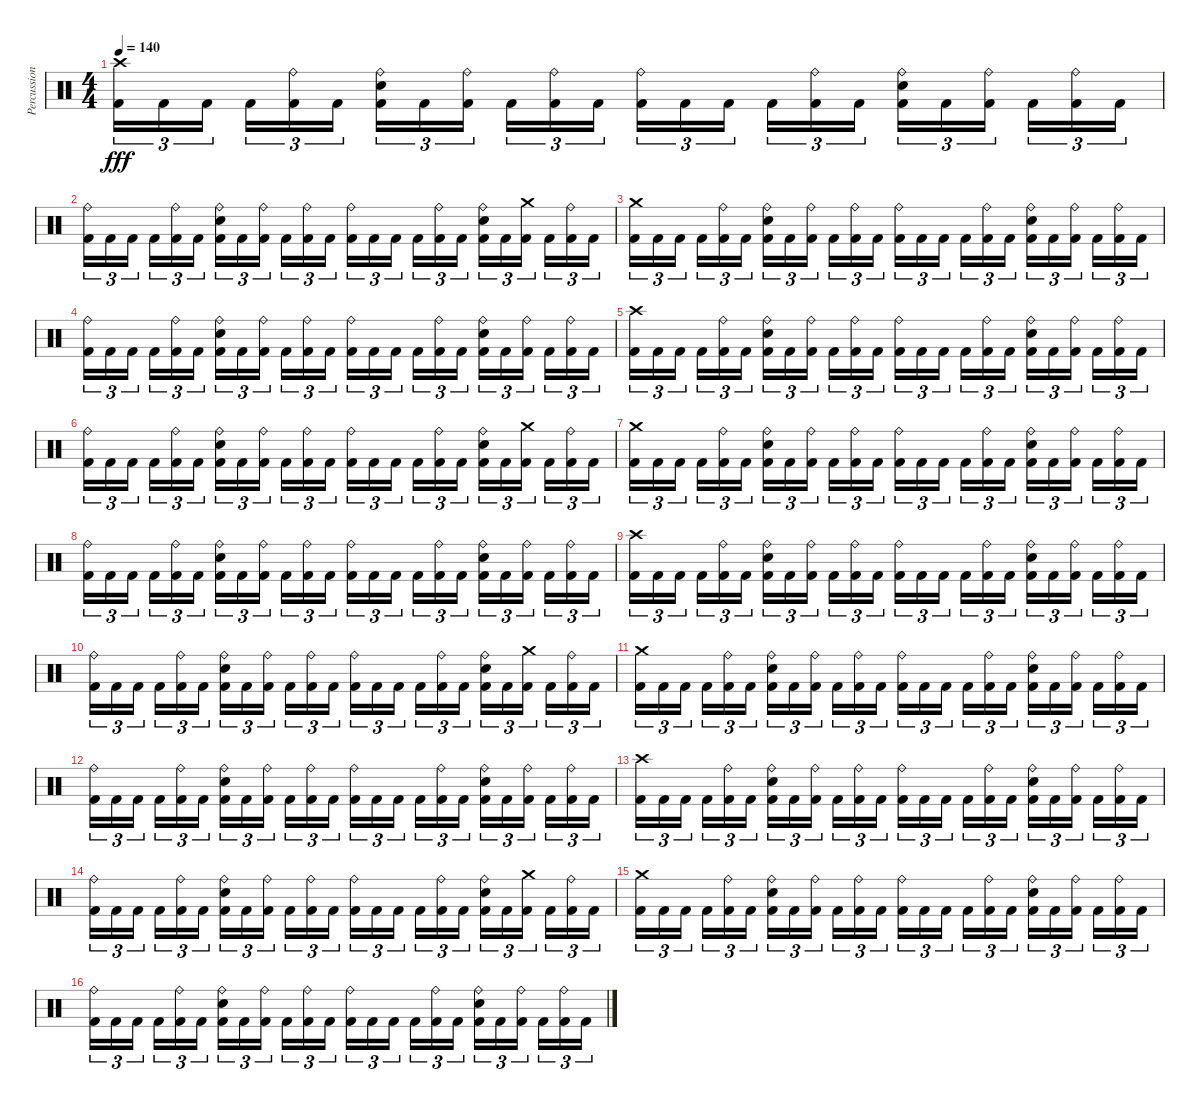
\track ("Percussions" "Percussion") {instrument percussion}
\staff {score}
\articulation defaults
\ts (4 4)
\tempo 140
\clef neutral
\ks c
("Crash high (hit)" "Kick (hit) 2").16{tu (3 2) dy fff} "Kick (hit) 2".16{tu (3 2)} "Kick (hit) 2".16{tu (3 2) beam splitsecondary} "Kick (hit) 2".16{tu (3 2)} ("Ride (bell)" "Kick (hit) 2").16{tu (3 2)} "Kick (hit) 2".16{tu (3 2)} ("Ride (bell)" "Snare (hit) 2" "Kick (hit) 2").16{tu (3 2)} "Kick (hit) 2".16{tu (3 2)} ("Ride (bell)" "Kick (hit) 2").16{tu (3 2) beam splitsecondary} "Kick (hit) 2".16{tu (3 2)} ("Ride (bell)" "Kick (hit) 2").16{tu (3 2)} "Kick (hit) 2".16{tu (3 2)} ("Ride (bell)" "Kick (hit) 2").16{tu (3 2)} "Kick (hit) 2".16{tu (3 2)} "Kick (hit) 2".16{tu (3 2) beam splitsecondary} "Kick (hit) 2".16{tu (3 2)} ("Ride (bell)" "Kick (hit) 2").16{tu (3 2)} "Kick (hit) 2".16{tu (3 2)} ("Ride (bell)" "Snare (hit) 2" "Kick (hit) 2").16{tu (3 2)} "Kick (hit) 2".16{tu (3 2)} ("Ride (bell)" "Kick (hit) 2").16{tu (3 2) beam splitsecondary} "Kick (hit) 2".16{tu (3 2)} ("Ride (bell)" "Kick (hit) 2").16{tu (3 2)} "Kick (hit) 2".16{tu (3 2)} |
("Ride (bell)" "Kick (hit) 2").16{tu (3 2)} "Kick (hit) 2".16{tu (3 2)} "Kick (hit) 2".16{tu (3 2) beam splitsecondary} "Kick (hit) 2".16{tu (3 2)} ("Ride (bell)" "Kick (hit) 2").16{tu (3 2)} "Kick (hit) 2".16{tu (3 2)} ("Ride (bell)" "Snare (hit) 2" "Kick (hit) 2").16{tu (3 2)} "Kick (hit) 2".16{tu (3 2)} ("Ride (bell)" "Kick (hit) 2").16{tu (3 2) beam splitsecondary} "Kick (hit) 2".16{tu (3 2)} ("Ride (bell)" "Kick (hit) 2").16{tu (3 2)} "Kick (hit) 2".16{tu (3 2)} ("Ride (bell)" "Kick (hit) 2").16{tu (3 2)} "Kick (hit) 2".16{tu (3 2)} "Kick (hit) 2".16{tu (3 2) beam splitsecondary} "Kick (hit) 2".16{tu (3 2)} ("Ride (bell)" "Kick (hit) 2").16{tu (3 2)} "Kick (hit) 2".16{tu (3 2)} ("Ride (bell)" "Snare (hit) 2" "Kick (hit) 2").16{tu (3 2)} "Kick (hit) 2".16{tu (3 2)} ("Crash medium (hit)" "Kick (hit) 2").16{tu (3 2) beam splitsecondary} "Kick (hit) 2".16{tu (3 2)} ("Ride (bell)" "Kick (hit) 2").16{tu (3 2)} "Kick (hit) 2".16{tu (3 2)} |
("Crash medium (hit)" "Kick (hit) 2").16{tu (3 2)} "Kick (hit) 2".16{tu (3 2)} "Kick (hit) 2".16{tu (3 2) beam splitsecondary} "Kick (hit) 2".16{tu (3 2)} ("Ride (bell)" "Kick (hit) 2").16{tu (3 2)} "Kick (hit) 2".16{tu (3 2)} ("Ride (bell)" "Snare (hit) 2" "Kick (hit) 2").16{tu (3 2)} "Kick (hit) 2".16{tu (3 2)} ("Ride (bell)" "Kick (hit) 2").16{tu (3 2) beam splitsecondary} "Kick (hit) 2".16{tu (3 2)} ("Ride (bell)" "Kick (hit) 2").16{tu (3 2)} "Kick (hit) 2".16{tu (3 2)} ("Ride (bell)" "Kick (hit) 2").16{tu (3 2)} "Kick (hit) 2".16{tu (3 2)} "Kick (hit) 2".16{tu (3 2) beam splitsecondary} "Kick (hit) 2".16{tu (3 2)} ("Ride (bell)" "Kick (hit) 2").16{tu (3 2)} "Kick (hit) 2".16{tu (3 2)} ("Ride (bell)" "Snare (hit) 2" "Kick (hit) 2").16{tu (3 2)} "Kick (hit) 2".16{tu (3 2)} ("Ride (bell)" "Kick (hit) 2").16{tu (3 2) beam splitsecondary} "Kick (hit) 2".16{tu (3 2)} ("Ride (bell)" "Kick (hit) 2").16{tu (3 2)} "Kick (hit) 2".16{tu (3 2)} |
("Ride (bell)" "Kick (hit) 2").16{tu (3 2)} "Kick (hit) 2".16{tu (3 2)} "Kick (hit) 2".16{tu (3 2) beam splitsecondary} "Kick (hit) 2".16{tu (3 2)} ("Ride (bell)" "Kick (hit) 2").16{tu (3 2)} "Kick (hit) 2".16{tu (3 2)} ("Ride (bell)" "Snare (hit) 2" "Kick (hit) 2").16{tu (3 2)} "Kick (hit) 2".16{tu (3 2)} ("Ride (bell)" "Kick (hit) 2").16{tu (3 2) beam splitsecondary} "Kick (hit) 2".16{tu (3 2)} ("Ride (bell)" "Kick (hit) 2").16{tu (3 2)} "Kick (hit) 2".16{tu (3 2)} ("Ride (bell)" "Kick (hit) 2").16{tu (3 2)} "Kick (hit) 2".16{tu (3 2)} "Kick (hit) 2".16{tu (3 2) beam splitsecondary} "Kick (hit) 2".16{tu (3 2)} ("Ride (bell)" "Kick (hit) 2").16{tu (3 2)} "Kick (hit) 2".16{tu (3 2)} ("Ride (bell)" "Snare (hit) 2" "Kick (hit) 2").16{tu (3 2)} "Kick (hit) 2".16{tu (3 2)} ("Ride (bell)" "Kick (hit) 2").16{tu (3 2) beam splitsecondary} "Kick (hit) 2".16{tu (3 2)} ("Ride (bell)" "Kick (hit) 2").16{tu (3 2)} "Kick (hit) 2".16{tu (3 2)} |
("Crash high (hit)" "Kick (hit) 2").16{tu (3 2)} "Kick (hit) 2".16{tu (3 2)} "Kick (hit) 2".16{tu (3 2) beam splitsecondary} "Kick (hit) 2".16{tu (3 2)} ("Ride (bell)" "Kick (hit) 2").16{tu (3 2)} "Kick (hit) 2".16{tu (3 2)} ("Ride (bell)" "Snare (hit) 2" "Kick (hit) 2").16{tu (3 2)} "Kick (hit) 2".16{tu (3 2)} ("Ride (bell)" "Kick (hit) 2").16{tu (3 2) beam splitsecondary} "Kick (hit) 2".16{tu (3 2)} ("Ride (bell)" "Kick (hit) 2").16{tu (3 2)} "Kick (hit) 2".16{tu (3 2)} ("Ride (bell)" "Kick (hit) 2").16{tu (3 2)} "Kick (hit) 2".16{tu (3 2)} "Kick (hit) 2".16{tu (3 2) beam splitsecondary} "Kick (hit) 2".16{tu (3 2)} ("Ride (bell)" "Kick (hit) 2").16{tu (3 2)} "Kick (hit) 2".16{tu (3 2)} ("Ride (bell)" "Snare (hit) 2" "Kick (hit) 2").16{tu (3 2)} "Kick (hit) 2".16{tu (3 2)} ("Ride (bell)" "Kick (hit) 2").16{tu (3 2) beam splitsecondary} "Kick (hit) 2".16{tu (3 2)} ("Ride (bell)" "Kick (hit) 2").16{tu (3 2)} "Kick (hit) 2".16{tu (3 2)} |
("Ride (bell)" "Kick (hit) 2").16{tu (3 2)} "Kick (hit) 2".16{tu (3 2)} "Kick (hit) 2".16{tu (3 2) beam splitsecondary} "Kick (hit) 2".16{tu (3 2)} ("Ride (bell)" "Kick (hit) 2").16{tu (3 2)} "Kick (hit) 2".16{tu (3 2)} ("Ride (bell)" "Snare (hit) 2" "Kick (hit) 2").16{tu (3 2)} "Kick (hit) 2".16{tu (3 2)} ("Ride (bell)" "Kick (hit) 2").16{tu (3 2) beam splitsecondary} "Kick (hit) 2".16{tu (3 2)} ("Ride (bell)" "Kick (hit) 2").16{tu (3 2)} "Kick (hit) 2".16{tu (3 2)} ("Ride (bell)" "Kick (hit) 2").16{tu (3 2)} "Kick (hit) 2".16{tu (3 2)} "Kick (hit) 2".16{tu (3 2) beam splitsecondary} "Kick (hit) 2".16{tu (3 2)} ("Ride (bell)" "Kick (hit) 2").16{tu (3 2)} "Kick (hit) 2".16{tu (3 2)} ("Ride (bell)" "Snare (hit) 2" "Kick (hit) 2").16{tu (3 2)} "Kick (hit) 2".16{tu (3 2)} ("Crash medium (hit)" "Kick (hit) 2").16{tu (3 2) beam splitsecondary} "Kick (hit) 2".16{tu (3 2)} ("Ride (bell)" "Kick (hit) 2").16{tu (3 2)} "Kick (hit) 2".16{tu (3 2)} |
("Crash medium (hit)" "Kick (hit) 2").16{tu (3 2)} "Kick (hit) 2".16{tu (3 2)} "Kick (hit) 2".16{tu (3 2) beam splitsecondary} "Kick (hit) 2".16{tu (3 2)} ("Ride (bell)" "Kick (hit) 2").16{tu (3 2)} "Kick (hit) 2".16{tu (3 2)} ("Ride (bell)" "Snare (hit) 2" "Kick (hit) 2").16{tu (3 2)} "Kick (hit) 2".16{tu (3 2)} ("Ride (bell)" "Kick (hit) 2").16{tu (3 2) beam splitsecondary} "Kick (hit) 2".16{tu (3 2)} ("Ride (bell)" "Kick (hit) 2").16{tu (3 2)} "Kick (hit) 2".16{tu (3 2)} ("Ride (bell)" "Kick (hit) 2").16{tu (3 2)} "Kick (hit) 2".16{tu (3 2)} "Kick (hit) 2".16{tu (3 2) beam splitsecondary} "Kick (hit) 2".16{tu (3 2)} ("Ride (bell)" "Kick (hit) 2").16{tu (3 2)} "Kick (hit) 2".16{tu (3 2)} ("Ride (bell)" "Snare (hit) 2" "Kick (hit) 2").16{tu (3 2)} "Kick (hit) 2".16{tu (3 2)} ("Ride (bell)" "Kick (hit) 2").16{tu (3 2) beam splitsecondary} "Kick (hit) 2".16{tu (3 2)} ("Ride (bell)" "Kick (hit) 2").16{tu (3 2)} "Kick (hit) 2".16{tu (3 2)} |
("Ride (bell)" "Kick (hit) 2").16{tu (3 2)} "Kick (hit) 2".16{tu (3 2)} "Kick (hit) 2".16{tu (3 2) beam splitsecondary} "Kick (hit) 2".16{tu (3 2)} ("Ride (bell)" "Kick (hit) 2").16{tu (3 2)} "Kick (hit) 2".16{tu (3 2)} ("Ride (bell)" "Snare (hit) 2" "Kick (hit) 2").16{tu (3 2)} "Kick (hit) 2".16{tu (3 2)} ("Ride (bell)" "Kick (hit) 2").16{tu (3 2) beam splitsecondary} "Kick (hit) 2".16{tu (3 2)} ("Ride (bell)" "Kick (hit) 2").16{tu (3 2)} "Kick (hit) 2".16{tu (3 2)} ("Ride (bell)" "Kick (hit) 2").16{tu (3 2)} "Kick (hit) 2".16{tu (3 2)} "Kick (hit) 2".16{tu (3 2) beam splitsecondary} "Kick (hit) 2".16{tu (3 2)} ("Ride (bell)" "Kick (hit) 2").16{tu (3 2)} "Kick (hit) 2".16{tu (3 2)} ("Ride (bell)" "Snare (hit) 2" "Kick (hit) 2").16{tu (3 2)} "Kick (hit) 2".16{tu (3 2)} ("Ride (bell)" "Kick (hit) 2").16{tu (3 2) beam splitsecondary} "Kick (hit) 2".16{tu (3 2)} ("Ride (bell)" "Kick (hit) 2").16{tu (3 2)} "Kick (hit) 2".16{tu (3 2)} |
("Crash high (hit)" "Kick (hit) 2").16{tu (3 2)} "Kick (hit) 2".16{tu (3 2)} "Kick (hit) 2".16{tu (3 2) beam splitsecondary} "Kick (hit) 2".16{tu (3 2)} ("Ride (bell)" "Kick (hit) 2").16{tu (3 2)} "Kick (hit) 2".16{tu (3 2)} ("Ride (bell)" "Snare (hit) 2" "Kick (hit) 2").16{tu (3 2)} "Kick (hit) 2".16{tu (3 2)} ("Ride (bell)" "Kick (hit) 2").16{tu (3 2) beam splitsecondary} "Kick (hit) 2".16{tu (3 2)} ("Ride (bell)" "Kick (hit) 2").16{tu (3 2)} "Kick (hit) 2".16{tu (3 2)} ("Ride (bell)" "Kick (hit) 2").16{tu (3 2)} "Kick (hit) 2".16{tu (3 2)} "Kick (hit) 2".16{tu (3 2) beam splitsecondary} "Kick (hit) 2".16{tu (3 2)} ("Ride (bell)" "Kick (hit) 2").16{tu (3 2)} "Kick (hit) 2".16{tu (3 2)} ("Ride (bell)" "Snare (hit) 2" "Kick (hit) 2").16{tu (3 2)} "Kick (hit) 2".16{tu (3 2)} ("Ride (bell)" "Kick (hit) 2").16{tu (3 2) beam splitsecondary} "Kick (hit) 2".16{tu (3 2)} ("Ride (bell)" "Kick (hit) 2").16{tu (3 2)} "Kick (hit) 2".16{tu (3 2)} |
("Ride (bell)" "Kick (hit) 2").16{tu (3 2)} "Kick (hit) 2".16{tu (3 2)} "Kick (hit) 2".16{tu (3 2) beam splitsecondary} "Kick (hit) 2".16{tu (3 2)} ("Ride (bell)" "Kick (hit) 2").16{tu (3 2)} "Kick (hit) 2".16{tu (3 2)} ("Ride (bell)" "Snare (hit) 2" "Kick (hit) 2").16{tu (3 2)} "Kick (hit) 2".16{tu (3 2)} ("Ride (bell)" "Kick (hit) 2").16{tu (3 2) beam splitsecondary} "Kick (hit) 2".16{tu (3 2)} ("Ride (bell)" "Kick (hit) 2").16{tu (3 2)} "Kick (hit) 2".16{tu (3 2)} ("Ride (bell)" "Kick (hit) 2").16{tu (3 2)} "Kick (hit) 2".16{tu (3 2)} "Kick (hit) 2".16{tu (3 2) beam splitsecondary} "Kick (hit) 2".16{tu (3 2)} ("Ride (bell)" "Kick (hit) 2").16{tu (3 2)} "Kick (hit) 2".16{tu (3 2)} ("Ride (bell)" "Snare (hit) 2" "Kick (hit) 2").16{tu (3 2)} "Kick (hit) 2".16{tu (3 2)} ("Crash medium (hit)" "Kick (hit) 2").16{tu (3 2) beam splitsecondary} "Kick (hit) 2".16{tu (3 2)} ("Ride (bell)" "Kick (hit) 2").16{tu (3 2)} "Kick (hit) 2".16{tu (3 2)} |
("Crash medium (hit)" "Kick (hit) 2").16{tu (3 2)} "Kick (hit) 2".16{tu (3 2)} "Kick (hit) 2".16{tu (3 2) beam splitsecondary} "Kick (hit) 2".16{tu (3 2)} ("Ride (bell)" "Kick (hit) 2").16{tu (3 2)} "Kick (hit) 2".16{tu (3 2)} ("Ride (bell)" "Snare (hit) 2" "Kick (hit) 2").16{tu (3 2)} "Kick (hit) 2".16{tu (3 2)} ("Ride (bell)" "Kick (hit) 2").16{tu (3 2) beam splitsecondary} "Kick (hit) 2".16{tu (3 2)} ("Ride (bell)" "Kick (hit) 2").16{tu (3 2)} "Kick (hit) 2".16{tu (3 2)} ("Ride (bell)" "Kick (hit) 2").16{tu (3 2)} "Kick (hit) 2".16{tu (3 2)} "Kick (hit) 2".16{tu (3 2) beam splitsecondary} "Kick (hit) 2".16{tu (3 2)} ("Ride (bell)" "Kick (hit) 2").16{tu (3 2)} "Kick (hit) 2".16{tu (3 2)} ("Ride (bell)" "Snare (hit) 2" "Kick (hit) 2").16{tu (3 2)} "Kick (hit) 2".16{tu (3 2)} ("Ride (bell)" "Kick (hit) 2").16{tu (3 2) beam splitsecondary} "Kick (hit) 2".16{tu (3 2)} ("Ride (bell)" "Kick (hit) 2").16{tu (3 2)} "Kick (hit) 2".16{tu (3 2)} |
("Ride (bell)" "Kick (hit) 2").16{tu (3 2)} "Kick (hit) 2".16{tu (3 2)} "Kick (hit) 2".16{tu (3 2) beam splitsecondary} "Kick (hit) 2".16{tu (3 2)} ("Ride (bell)" "Kick (hit) 2").16{tu (3 2)} "Kick (hit) 2".16{tu (3 2)} ("Ride (bell)" "Snare (hit) 2" "Kick (hit) 2").16{tu (3 2)} "Kick (hit) 2".16{tu (3 2)} ("Ride (bell)" "Kick (hit) 2").16{tu (3 2) beam splitsecondary} "Kick (hit) 2".16{tu (3 2)} ("Ride (bell)" "Kick (hit) 2").16{tu (3 2)} "Kick (hit) 2".16{tu (3 2)} ("Ride (bell)" "Kick (hit) 2").16{tu (3 2)} "Kick (hit) 2".16{tu (3 2)} "Kick (hit) 2".16{tu (3 2) beam splitsecondary} "Kick (hit) 2".16{tu (3 2)} ("Ride (bell)" "Kick (hit) 2").16{tu (3 2)} "Kick (hit) 2".16{tu (3 2)} ("Ride (bell)" "Snare (hit) 2" "Kick (hit) 2").16{tu (3 2)} "Kick (hit) 2".16{tu (3 2)} ("Ride (bell)" "Kick (hit) 2").16{tu (3 2) beam splitsecondary} "Kick (hit) 2".16{tu (3 2)} ("Ride (bell)" "Kick (hit) 2").16{tu (3 2)} "Kick (hit) 2".16{tu (3 2)} |
("Crash high (hit)" "Kick (hit) 2").16{tu (3 2)} "Kick (hit) 2".16{tu (3 2)} "Kick (hit) 2".16{tu (3 2) beam splitsecondary} "Kick (hit) 2".16{tu (3 2)} ("Ride (bell)" "Kick (hit) 2").16{tu (3 2)} "Kick (hit) 2".16{tu (3 2)} ("Ride (bell)" "Snare (hit) 2" "Kick (hit) 2").16{tu (3 2)} "Kick (hit) 2".16{tu (3 2)} ("Ride (bell)" "Kick (hit) 2").16{tu (3 2) beam splitsecondary} "Kick (hit) 2".16{tu (3 2)} ("Ride (bell)" "Kick (hit) 2").16{tu (3 2)} "Kick (hit) 2".16{tu (3 2)} ("Ride (bell)" "Kick (hit) 2").16{tu (3 2)} "Kick (hit) 2".16{tu (3 2)} "Kick (hit) 2".16{tu (3 2) beam splitsecondary} "Kick (hit) 2".16{tu (3 2)} ("Ride (bell)" "Kick (hit) 2").16{tu (3 2)} "Kick (hit) 2".16{tu (3 2)} ("Ride (bell)" "Snare (hit) 2" "Kick (hit) 2").16{tu (3 2)} "Kick (hit) 2".16{tu (3 2)} ("Ride (bell)" "Kick (hit) 2").16{tu (3 2) beam splitsecondary} "Kick (hit) 2".16{tu (3 2)} ("Ride (bell)" "Kick (hit) 2").16{tu (3 2)} "Kick (hit) 2".16{tu (3 2)} |
("Ride (bell)" "Kick (hit) 2").16{tu (3 2)} "Kick (hit) 2".16{tu (3 2)} "Kick (hit) 2".16{tu (3 2) beam splitsecondary} "Kick (hit) 2".16{tu (3 2)} ("Ride (bell)" "Kick (hit) 2").16{tu (3 2)} "Kick (hit) 2".16{tu (3 2)} ("Ride (bell)" "Snare (hit) 2" "Kick (hit) 2").16{tu (3 2)} "Kick (hit) 2".16{tu (3 2)} ("Ride (bell)" "Kick (hit) 2").16{tu (3 2) beam splitsecondary} "Kick (hit) 2".16{tu (3 2)} ("Ride (bell)" "Kick (hit) 2").16{tu (3 2)} "Kick (hit) 2".16{tu (3 2)} ("Ride (bell)" "Kick (hit) 2").16{tu (3 2)} "Kick (hit) 2".16{tu (3 2)} "Kick (hit) 2".16{tu (3 2) beam splitsecondary} "Kick (hit) 2".16{tu (3 2)} ("Ride (bell)" "Kick (hit) 2").16{tu (3 2)} "Kick (hit) 2".16{tu (3 2)} ("Ride (bell)" "Snare (hit) 2" "Kick (hit) 2").16{tu (3 2)} "Kick (hit) 2".16{tu (3 2)} ("Crash medium (hit)" "Kick (hit) 2").16{tu (3 2) beam splitsecondary} "Kick (hit) 2".16{tu (3 2)} ("Ride (bell)" "Kick (hit) 2").16{tu (3 2)} "Kick (hit) 2".16{tu (3 2)} |
("Crash medium (hit)" "Kick (hit) 2").16{tu (3 2)} "Kick (hit) 2".16{tu (3 2)} "Kick (hit) 2".16{tu (3 2) beam splitsecondary} "Kick (hit) 2".16{tu (3 2)} ("Ride (bell)" "Kick (hit) 2").16{tu (3 2)} "Kick (hit) 2".16{tu (3 2)} ("Ride (bell)" "Snare (hit) 2" "Kick (hit) 2").16{tu (3 2)} "Kick (hit) 2".16{tu (3 2)} ("Ride (bell)" "Kick (hit) 2").16{tu (3 2) beam splitsecondary} "Kick (hit) 2".16{tu (3 2)} ("Ride (bell)" "Kick (hit) 2").16{tu (3 2)} "Kick (hit) 2".16{tu (3 2)} ("Ride (bell)" "Kick (hit) 2").16{tu (3 2)} "Kick (hit) 2".16{tu (3 2)} "Kick (hit) 2".16{tu (3 2) beam splitsecondary} "Kick (hit) 2".16{tu (3 2)} ("Ride (bell)" "Kick (hit) 2").16{tu (3 2)} "Kick (hit) 2".16{tu (3 2)} ("Ride (bell)" "Snare (hit) 2" "Kick (hit) 2").16{tu (3 2)} "Kick (hit) 2".16{tu (3 2)} ("Ride (bell)" "Kick (hit) 2").16{tu (3 2) beam splitsecondary} "Kick (hit) 2".16{tu (3 2)} ("Ride (bell)" "Kick (hit) 2").16{tu (3 2)} "Kick (hit) 2".16{tu (3 2)} |
("Ride (bell)" "Kick (hit) 2").16{tu (3 2)} "Kick (hit) 2".16{tu (3 2)} "Kick (hit) 2".16{tu (3 2) beam splitsecondary} "Kick (hit) 2".16{tu (3 2)} ("Ride (bell)" "Kick (hit) 2").16{tu (3 2)} "Kick (hit) 2".16{tu (3 2)} ("Ride (bell)" "Snare (hit) 2" "Kick (hit) 2").16{tu (3 2)} "Kick (hit) 2".16{tu (3 2)} ("Ride (bell)" "Kick (hit) 2").16{tu (3 2) beam splitsecondary} "Kick (hit) 2".16{tu (3 2)} ("Ride (bell)" "Kick (hit) 2").16{tu (3 2)} "Kick (hit) 2".16{tu (3 2)} ("Ride (bell)" "Kick (hit) 2").16{tu (3 2)} "Kick (hit) 2".16{tu (3 2)} "Kick (hit) 2".16{tu (3 2) beam splitsecondary} "Kick (hit) 2".16{tu (3 2)} ("Ride (bell)" "Kick (hit) 2").16{tu (3 2)} "Kick (hit) 2".16{tu (3 2)} ("Ride (bell)" "Snare (hit) 2" "Kick (hit) 2").16{tu (3 2)} "Kick (hit) 2".16{tu (3 2)} ("Ride (bell)" "Kick (hit) 2").16{tu (3 2) beam splitsecondary} "Kick (hit) 2".16{tu (3 2)} ("Ride (bell)" "Kick (hit) 2").16{tu (3 2)} "Kick (hit) 2".16{tu (3 2)}
